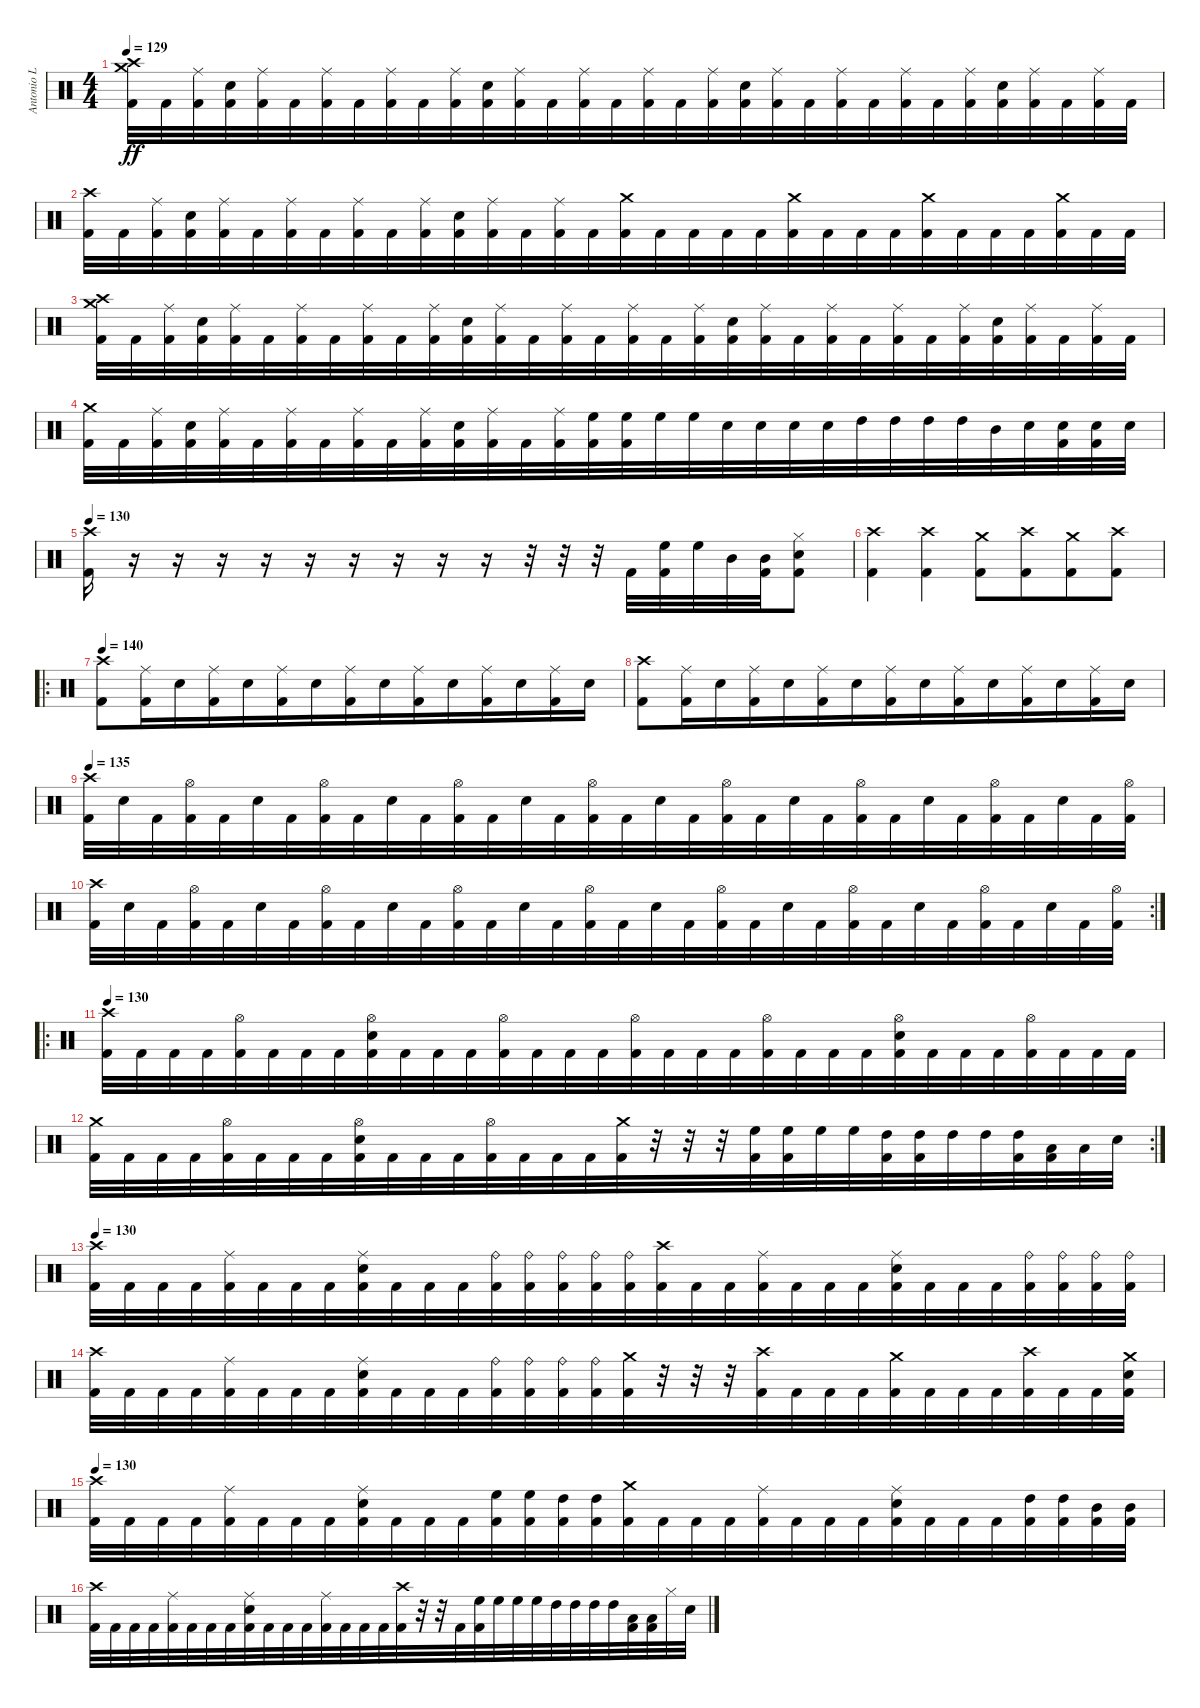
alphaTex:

\track ("Antonio L" "Antonio L") {instrument percussion}
\staff {score}
\articulation defaults
\ts (4 4)
\tempo 129
\clef neutral
\ks c
("Crash medium (hit)" "Kick (hit) 2" "Crash high (hit)").32{dy ff} "Kick (hit) 2".32 ("Ride (middle)" "Kick (hit) 2").32 ("Kick (hit) 2" "Electric Snare (hit)").32 ("Ride (middle)" "Kick (hit) 2").32 "Kick (hit) 2".32 ("Ride (middle)" "Kick (hit) 2").32 "Kick (hit) 2".32{beam merge} ("Ride (middle)" "Kick (hit) 2").32 "Kick (hit) 2".32 ("Ride (middle)" "Kick (hit) 2").32 ("Kick (hit) 2" "Electric Snare (hit)").32 ("Ride (middle)" "Kick (hit) 2").32 "Kick (hit) 2".32 ("Ride (middle)" "Kick (hit) 2").32 "Kick (hit) 2".32{beam merge} ("Ride (middle)" "Kick (hit) 2").32 "Kick (hit) 2".32 ("Ride (middle)" "Kick (hit) 2").32 ("Electric Snare (hit)" "Kick (hit) 2").32 ("Ride (middle)" "Kick (hit) 2").32 "Kick (hit) 2".32 ("Ride (middle)" "Kick (hit) 2").32 "Kick (hit) 2".32{beam merge} ("Ride (middle)" "Kick (hit) 2").32 "Kick (hit) 2".32 ("Ride (middle)" "Kick (hit) 2").32 ("Electric Snare (hit)" "Kick (hit) 2").32 ("Ride (middle)" "Kick (hit) 2").32 "Kick (hit) 2".32 ("Ride (middle)" "Kick (hit) 2").32 "Kick (hit) 2".32 |
("Crash high (hit)" "Kick (hit) 2").32 "Kick (hit) 2".32 ("Ride (middle)" "Kick (hit) 2").32 ("Kick (hit) 2" "Electric Snare (hit)").32 ("Ride (middle)" "Kick (hit) 2").32 "Kick (hit) 2".32 ("Ride (middle)" "Kick (hit) 2").32 "Kick (hit) 2".32{beam merge} ("Ride (middle)" "Kick (hit) 2").32 "Kick (hit) 2".32 ("Ride (middle)" "Kick (hit) 2").32 ("Kick (hit) 2" "Electric Snare (hit)").32 ("Ride (middle)" "Kick (hit) 2").32 "Kick (hit) 2".32 ("Ride (middle)" "Kick (hit) 2").32 "Kick (hit) 2".32{beam merge} ("Crash medium (hit)" "Kick (hit) 2").32 "Kick (hit) 2".32 "Kick (hit) 2".32 "Kick (hit) 2".32 "Kick (hit) 2".32 ("Crash medium (hit)" "Kick (hit) 2").32 "Kick (hit) 2".32 "Kick (hit) 2".32{beam merge} "Kick (hit) 2".32 ("Crash medium (hit)" "Kick (hit) 2").32 "Kick (hit) 2".32 "Kick (hit) 2".32 "Kick (hit) 2".32 ("Crash medium (hit)" "Kick (hit) 2").32 "Kick (hit) 2".32 "Kick (hit) 2".32 |
("Crash medium (hit)" "Kick (hit) 2" "Crash high (hit)").32 "Kick (hit) 2".32 ("Ride (middle)" "Kick (hit) 2").32 ("Kick (hit) 2" "Electric Snare (hit)").32 ("Ride (middle)" "Kick (hit) 2").32 "Kick (hit) 2".32 ("Ride (middle)" "Kick (hit) 2").32 "Kick (hit) 2".32{beam merge} ("Ride (middle)" "Kick (hit) 2").32 "Kick (hit) 2".32 ("Ride (middle)" "Kick (hit) 2").32 ("Kick (hit) 2" "Electric Snare (hit)").32 ("Ride (middle)" "Kick (hit) 2").32 "Kick (hit) 2".32 ("Ride (middle)" "Kick (hit) 2").32 "Kick (hit) 2".32{beam merge} ("Ride (middle)" "Kick (hit) 2").32 "Kick (hit) 2".32 ("Ride (middle)" "Kick (hit) 2").32 ("Kick (hit) 2" "Electric Snare (hit)").32 ("Ride (middle)" "Kick (hit) 2").32 "Kick (hit) 2".32 ("Ride (middle)" "Kick (hit) 2").32 "Kick (hit) 2".32{beam merge} ("Ride (middle)" "Kick (hit) 2").32 "Kick (hit) 2".32 ("Ride (middle)" "Kick (hit) 2").32 ("Kick (hit) 2" "Electric Snare (hit)").32 ("Ride (middle)" "Kick (hit) 2").32 "Kick (hit) 2".32 ("Ride (middle)" "Kick (hit) 2").32 "Kick (hit) 2".32 |
("Crash medium (hit)" "Kick (hit) 2").32 "Kick (hit) 2".32 ("Ride (middle)" "Kick (hit) 2").32 ("Kick (hit) 2" "Electric Snare (hit)").32 ("Ride (middle)" "Kick (hit) 2").32 "Kick (hit) 2".32 ("Ride (middle)" "Kick (hit) 2").32 "Kick (hit) 2".32{beam merge} ("Ride (middle)" "Kick (hit) 2").32 "Kick (hit) 2".32 ("Ride (middle)" "Kick (hit) 2").32 ("Kick (hit) 2" "Electric Snare (hit)").32 ("Ride (middle)" "Kick (hit) 2").32 "Kick (hit) 2".32 ("Ride (middle)" "Kick (hit) 2").32 ("High Floor Tom (hit)" "Kick (hit) 2").32{beam merge} ("High Floor Tom (hit)" "Kick (hit) 2").32 "High Floor Tom (hit)".32 "High Floor Tom (hit)".32 "Electric Snare (hit)".32 "Electric Snare (hit)".32 "Electric Snare (hit)".32 "Electric Snare (hit)".32 "High Tom (hit)".32{beam merge} "High Tom (hit)".32 "High Tom (hit)".32 "High Tom (hit)".32 "Mid Tom (hit)".32 "Electric Snare (hit)".32 ("Electric Snare (hit)" "Kick (hit) 2").32 ("Electric Snare (hit)" "Kick (hit) 2").32 "Electric Snare (hit)".32 |
\tempo 130
("Crash high (hit)" "Kick (hit) 2").16 r.16 r.16 r.16 r.16 r.16 r.16 r.16 r.16 r.16 r.32 r.32 r.32 "Kick (hit) 2".32{beam merge} ("High Floor Tom (hit)" "Kick (hit) 2").32 "High Floor Tom (hit)".32 "Mid Tom (hit)".32 ("Mid Tom (hit)" "Kick (hit) 2").32 ("Hi-Hat (closed)" "Electric Snare (hit)" "Kick (hit) 2").8 |
("Crash high (hit)" "Kick (hit) 2").4 ("Crash high (hit)" "Kick (hit) 2").4 ("Crash medium (hit)" "Kick (hit) 2").8 ("Crash high (hit)" "Kick (hit) 2").8{beam merge} ("Crash medium (hit)" "Kick (hit) 2").8 ("Crash high (hit)" "Kick (hit) 2").8 |
\ro
\tempo 140
("Crash high (hit)" "Kick (hit) 2").8 ("Ride (middle)" "Kick (hit) 2").16 "Electric Snare (hit)".16{beam merge} ("Ride (middle)" "Kick (hit) 2").16 "Electric Snare (hit)".16 ("Ride (middle)" "Kick (hit) 2").16 "Electric Snare (hit)".16{beam merge} ("Ride (middle)" "Kick (hit) 2").16 "Electric Snare (hit)".16 ("Ride (middle)" "Kick (hit) 2").16 "Electric Snare (hit)".16{beam merge} ("Ride (middle)" "Kick (hit) 2").16 "Electric Snare (hit)".16 ("Ride (middle)" "Kick (hit) 2").16 "Electric Snare (hit)".16 |
("Crash high (hit)" "Kick (hit) 2").8 ("Ride (middle)" "Kick (hit) 2").16 "Electric Snare (hit)".16{beam merge} ("Ride (middle)" "Kick (hit) 2").16 "Electric Snare (hit)".16 ("Ride (middle)" "Kick (hit) 2").16 "Electric Snare (hit)".16{beam merge} ("Ride (middle)" "Kick (hit) 2").16 "Electric Snare (hit)".16 ("Ride (middle)" "Kick (hit) 2").16 "Electric Snare (hit)".16{beam merge} ("Ride (middle)" "Kick (hit) 2").16 "Electric Snare (hit)".16 ("Ride (middle)" "Kick (hit) 2").16 "Electric Snare (hit)".16 |
\tempo 135
("Crash high (hit)" "Kick (hit) 2").32 "Electric Snare (hit)".32 "Kick (hit) 2".32 ("Hi-Hat (open)" "Kick (hit) 2").32 "Kick (hit) 2".32 "Electric Snare (hit)".32 "Kick (hit) 2".32 ("Hi-Hat (open)" "Kick (hit) 2").32{beam merge} "Kick (hit) 2".32 "Electric Snare (hit)".32 "Kick (hit) 2".32 ("Hi-Hat (open)" "Kick (hit) 2").32 "Kick (hit) 2".32 "Electric Snare (hit)".32 "Kick (hit) 2".32 ("Hi-Hat (open)" "Kick (hit) 2").32{beam merge} "Kick (hit) 2".32 "Electric Snare (hit)".32 "Kick (hit) 2".32 ("Hi-Hat (open)" "Kick (hit) 2").32 "Kick (hit) 2".32 "Electric Snare (hit)".32 "Kick (hit) 2".32 ("Hi-Hat (open)" "Kick (hit) 2").32{beam merge} "Kick (hit) 2".32 "Electric Snare (hit)".32 "Kick (hit) 2".32 ("Hi-Hat (open)" "Kick (hit) 2").32 "Kick (hit) 2".32 "Electric Snare (hit)".32 "Kick (hit) 2".32 ("Hi-Hat (open)" "Kick (hit) 2").32 |
\rc 2
("Crash high (hit)" "Kick (hit) 2").32 "Electric Snare (hit)".32 "Kick (hit) 2".32 ("Hi-Hat (open)" "Kick (hit) 2").32 "Kick (hit) 2".32 "Electric Snare (hit)".32 "Kick (hit) 2".32 ("Hi-Hat (open)" "Kick (hit) 2").32{beam merge} "Kick (hit) 2".32 "Electric Snare (hit)".32 "Kick (hit) 2".32 ("Hi-Hat (open)" "Kick (hit) 2").32 "Kick (hit) 2".32 "Electric Snare (hit)".32 "Kick (hit) 2".32 ("Hi-Hat (open)" "Kick (hit) 2").32{beam merge} "Kick (hit) 2".32 "Electric Snare (hit)".32 "Kick (hit) 2".32 ("Hi-Hat (open)" "Kick (hit) 2").32 "Kick (hit) 2".32 "Electric Snare (hit)".32 "Kick (hit) 2".32 ("Hi-Hat (open)" "Kick (hit) 2").32{beam merge} "Kick (hit) 2".32 "Electric Snare (hit)".32 "Kick (hit) 2".32 ("Hi-Hat (open)" "Kick (hit) 2").32 "Kick (hit) 2".32 "Electric Snare (hit)".32 "Kick (hit) 2".32 ("Hi-Hat (open)" "Kick (hit) 2").32 |
\ro
\tempo 130
("Crash high (hit)" "Kick (hit) 2").32 "Kick (hit) 2".32 "Kick (hit) 2".32 "Kick (hit) 2".32 ("Hi-Hat (open)" "Kick (hit) 2").32 "Kick (hit) 2".32 "Kick (hit) 2".32 "Kick (hit) 2".32{beam merge} ("Hi-Hat (open)" "Electric Snare (hit)" "Kick (hit) 2").32 "Kick (hit) 2".32 "Kick (hit) 2".32 "Kick (hit) 2".32 ("Hi-Hat (open)" "Kick (hit) 2").32 "Kick (hit) 2".32 "Kick (hit) 2".32 "Kick (hit) 2".32{beam merge} ("Hi-Hat (open)" "Kick (hit) 2").32 "Kick (hit) 2".32 "Kick (hit) 2".32 "Kick (hit) 2".32 ("Hi-Hat (open)" "Kick (hit) 2").32 "Kick (hit) 2".32 "Kick (hit) 2".32 "Kick (hit) 2".32{beam merge} ("Hi-Hat (open)" "Electric Snare (hit)" "Kick (hit) 2").32 "Kick (hit) 2".32 "Kick (hit) 2".32 "Kick (hit) 2".32 ("Hi-Hat (open)" "Kick (hit) 2").32 "Kick (hit) 2".32 "Kick (hit) 2".32 "Kick (hit) 2".32 |
\rc 2
("Crash medium (hit)" "Kick (hit) 2").32 "Kick (hit) 2".32 "Kick (hit) 2".32 "Kick (hit) 2".32 ("Hi-Hat (open)" "Kick (hit) 2").32 "Kick (hit) 2".32 "Kick (hit) 2".32 "Kick (hit) 2".32{beam merge} ("Hi-Hat (open)" "Electric Snare (hit)" "Kick (hit) 2").32 "Kick (hit) 2".32 "Kick (hit) 2".32 "Kick (hit) 2".32 ("Hi-Hat (open)" "Kick (hit) 2").32 "Kick (hit) 2".32 "Kick (hit) 2".32 "Kick (hit) 2".32{beam merge} ("Crash medium (hit)" "Kick (hit) 2").32 r.32 r.32 r.32 ("High Floor Tom (hit)" "Kick (hit) 2").32 ("High Floor Tom (hit)" "Kick (hit) 2").32 "High Floor Tom (hit)".32 "High Floor Tom (hit)".32{beam merge} ("High Tom (hit)" "Kick (hit) 2").32 ("High Tom (hit)" "Kick (hit) 2").32 "High Tom (hit)".32 "High Tom (hit)".32 ("High Tom (hit)" "Kick (hit) 2").32 ("Low Tom (hit)" "Kick (hit) 2").32 "Low Tom (hit)".32 "Electric Snare (hit)".32 |
\tempo 130
("Crash high (hit)" "Kick (hit) 2").32 "Kick (hit) 2".32 "Kick (hit) 2".32 "Kick (hit) 2".32 ("Ride (middle)" "Kick (hit) 2").32 "Kick (hit) 2".32 "Kick (hit) 2".32 "Kick (hit) 2".32{beam merge} ("Ride (middle)" "Electric Snare (hit)" "Kick (hit) 2").32 "Kick (hit) 2".32 "Kick (hit) 2".32 "Kick (hit) 2".32 ("Ride (bell)" "Kick (hit) 2").32 ("Ride (bell)" "Kick (hit) 2").32 ("Ride (bell)" "Kick (hit) 2").32 ("Ride (bell)" "Kick (hit) 2").32{beam merge} ("Ride (bell)" "Kick (hit) 2").32 ("Crash high (hit)" "Kick (hit) 2").32 "Kick (hit) 2".32 "Kick (hit) 2".32 ("Ride (middle)" "Kick (hit) 2").32 "Kick (hit) 2".32 "Kick (hit) 2".32 "Kick (hit) 2".32{beam merge} ("Ride (middle)" "Electric Snare (hit)" "Kick (hit) 2").32 "Kick (hit) 2".32 "Kick (hit) 2".32 "Kick (hit) 2".32 ("Ride (bell)" "Kick (hit) 2").32 ("Ride (bell)" "Kick (hit) 2").32 ("Ride (bell)" "Kick (hit) 2").32 ("Ride (bell)" "Kick (hit) 2").32 |
("Crash high (hit)" "Kick (hit) 2").32 "Kick (hit) 2".32 "Kick (hit) 2".32 "Kick (hit) 2".32 ("Ride (middle)" "Kick (hit) 2").32 "Kick (hit) 2".32 "Kick (hit) 2".32 "Kick (hit) 2".32{beam merge} ("Ride (middle)" "Electric Snare (hit)" "Kick (hit) 2").32 "Kick (hit) 2".32 "Kick (hit) 2".32 "Kick (hit) 2".32 ("Ride (bell)" "Kick (hit) 2").32 ("Ride (bell)" "Kick (hit) 2").32 ("Ride (bell)" "Kick (hit) 2").32 ("Ride (bell)" "Kick (hit) 2").32{beam merge} ("Crash medium (hit)" "Kick (hit) 2").32 r.32 r.32 r.32 ("Crash high (hit)" "Kick (hit) 2").32 "Kick (hit) 2".32 "Kick (hit) 2".32 "Kick (hit) 2".32{beam merge} ("Crash medium (hit)" "Kick (hit) 2").32 "Kick (hit) 2".32 "Kick (hit) 2".32 "Kick (hit) 2".32 ("Crash high (hit)" "Kick (hit) 2").32 "Kick (hit) 2".32 "Kick (hit) 2".32 ("Crash medium (hit)" "Electric Snare (hit)" "Kick (hit) 2").32 |
\tempo 130
("Crash high (hit)" "Kick (hit) 2").32 "Kick (hit) 2".32 "Kick (hit) 2".32 "Kick (hit) 2".32 ("Ride (middle)" "Kick (hit) 2").32 "Kick (hit) 2".32 "Kick (hit) 2".32 "Kick (hit) 2".32{beam merge} ("Ride (middle)" "Electric Snare (hit)" "Kick (hit) 2").32 "Kick (hit) 2".32 "Kick (hit) 2".32 "Kick (hit) 2".32 ("High Floor Tom (hit)" "Kick (hit) 2").32 ("High Floor Tom (hit)" "Kick (hit) 2").32 ("High Tom (hit)" "Kick (hit) 2").32 ("High Tom (hit)" "Kick (hit) 2").32{beam merge} ("Crash medium (hit)" "Kick (hit) 2").32 "Kick (hit) 2".32 "Kick (hit) 2".32 "Kick (hit) 2".32 ("Ride (middle)" "Kick (hit) 2").32 "Kick (hit) 2".32 "Kick (hit) 2".32 "Kick (hit) 2".32{beam merge} ("Ride (middle)" "Electric Snare (hit)" "Kick (hit) 2").32 "Kick (hit) 2".32 "Kick (hit) 2".32 "Kick (hit) 2".32 ("High Tom (hit)" "Kick (hit) 2").32 ("High Tom (hit)" "Kick (hit) 2").32 ("Mid Tom (hit)" "Kick (hit) 2").32 ("Mid Tom (hit)" "Kick (hit) 2").32 |
("Crash high (hit)" "Kick (hit) 2").32 "Kick (hit) 2".32 "Kick (hit) 2".32 "Kick (hit) 2".32 ("Ride (middle)" "Kick (hit) 2").32 "Kick (hit) 2".32 "Kick (hit) 2".32 "Kick (hit) 2".32{beam merge} ("Ride (middle)" "Electric Snare (hit)" "Kick (hit) 2").32 "Kick (hit) 2".32 "Kick (hit) 2".32 "Kick (hit) 2".32 ("Ride (middle)" "Kick (hit) 2").32 "Kick (hit) 2".32 "Kick (hit) 2".32 "Kick (hit) 2".32{beam merge} ("Crash high (hit)" "Kick (hit) 2").32 r.32 r.32 "Kick (hit) 2".32 ("High Floor Tom (hit)" "Kick (hit) 2").32 "High Floor Tom (hit)".32 "High Floor Tom (hit)".32 "High Floor Tom (hit)".32{beam merge} "High Tom (hit)".32 "High Tom (hit)".32 "High Tom (hit)".32 "High Tom (hit)".32 ("Low Tom (hit)" "Kick (hit) 2").32 ("Low Tom (hit)" "Kick (hit) 2").32 "Hi-Hat (closed)".32 "Electric Snare (hit)".32
